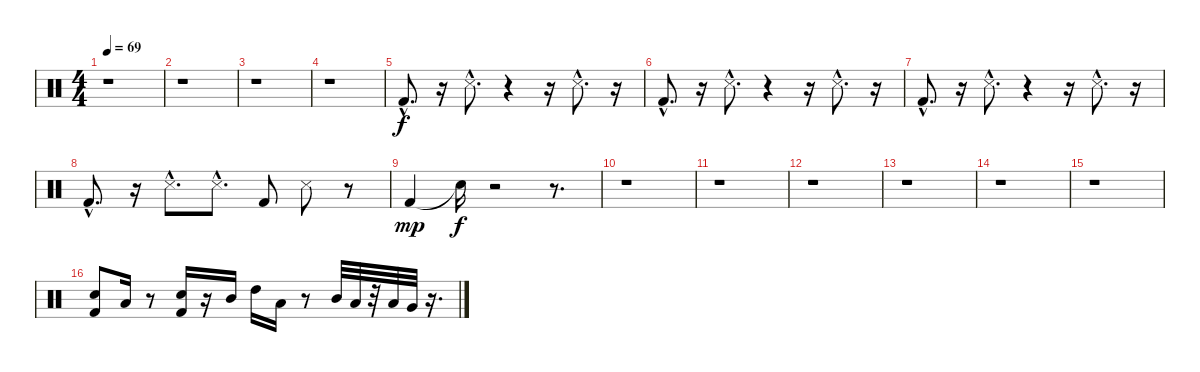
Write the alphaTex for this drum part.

\track "" {instrument percussion}
\staff {score}
\articulation defaults
\ts (4 4)
\tempo 69
\clef neutral
\ks c
r.1{dy f} |
r.1 |
r.1 |
r.1 |
"Kick (hit) 2"{hac}.8{d} r.16 "Snare (side stick) 3"{hac}.8{d} r.4 r.16 "Snare (side stick) 3"{hac}.8{d} r.16 |
"Kick (hit) 2"{hac}.8{d} r.16 "Snare (side stick) 3"{hac}.8{d} r.4 r.16 "Snare (side stick) 3"{hac}.8{d} r.16 |
"Kick (hit) 2"{hac}.8{d} r.16 "Snare (side stick) 3"{hac}.8{d} r.4 r.16 "Snare (side stick) 3"{hac}.8{d} r.16 |
"Kick (hit) 2"{hac}.8{d} r.16 "Snare (side stick) 3"{hac}.8{d} "Snare (side stick) 3"{hac}.8{d} "Kick (hit) 2".8 "Snare (side stick) 3".8 r.8 |
"Kick (hit) 2".4{dy mp} "Snare (hit)"{t}.16{dy f} r.2 r.8{d} |
r.1 |
r.1 |
r.1 |
r.1 |
r.1 |
r.1 |
("Kick (hit) 2" "Snare (hit) 2").8 "Low Tom (hit)".16 r.8 ("Kick (hit) 2" "Snare (hit) 2").16 r.16 "Mid Tom (hit)".16 "High Tom (hit)".16 "Low Tom (hit)".16 r.8 "Mid Tom (hit)".32 "Low Tom (hit)".32 r.32 "Low Tom (hit)".32 "Very Low Tom (hit)".32 r.16{d}
